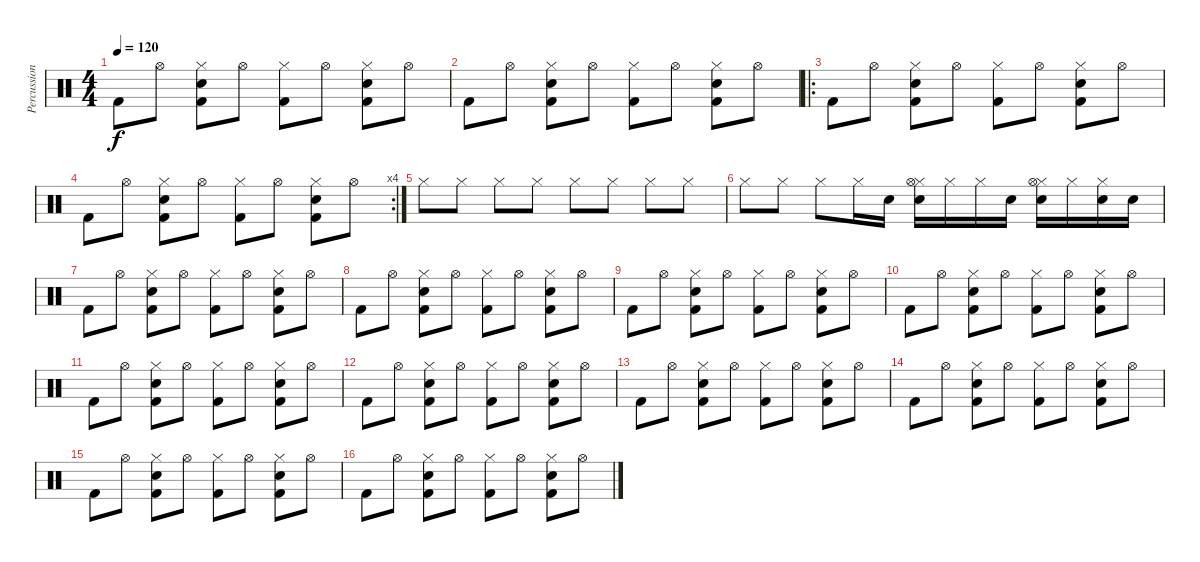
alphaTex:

\track ("Percussions" "Percussion") {instrument percussion}
\staff {score}
\articulation defaults
\ts (4 4)
\tempo 120
\clef neutral
\ks c "Kick (hit) 2".8{dy f} "Hi-Hat (open)".8
("Kick (hit) 2" "Hi-Hat (closed)" "Electric Snare (hit)").8 "Hi-Hat (open)".8 ("Kick (hit) 2" "Hi-Hat (closed)").8 "Hi-Hat (open)".8 ("Kick (hit) 2" "Hi-Hat (closed)" "Electric Snare (hit)").8 "Hi-Hat (open)".8 |
"Kick (hit) 2".8 "Hi-Hat (open)".8 ("Kick (hit) 2" "Hi-Hat (closed)" "Electric Snare (hit)").8 "Hi-Hat (open)".8 ("Kick (hit) 2" "Hi-Hat (closed)").8 "Hi-Hat (open)".8 ("Kick (hit) 2" "Hi-Hat (closed)" "Electric Snare (hit)").8 "Hi-Hat (open)".8 |
\ro "Kick (hit) 2".8 "Hi-Hat (open)".8
("Kick (hit) 2" "Hi-Hat (closed)" "Electric Snare (hit)").8 "Hi-Hat (open)".8 ("Kick (hit) 2" "Hi-Hat (closed)").8 "Hi-Hat (open)".8 ("Kick (hit) 2" "Hi-Hat (closed)" "Electric Snare (hit)").8 "Hi-Hat (open)".8 |
\rc 4 "Kick (hit) 2".8 "Hi-Hat (open)".8
("Kick (hit) 2" "Hi-Hat (closed)" "Electric Snare (hit)").8 "Hi-Hat (open)".8 ("Kick (hit) 2" "Hi-Hat (closed)").8 "Hi-Hat (open)".8 ("Kick (hit) 2" "Hi-Hat (closed)" "Electric Snare (hit)").8 "Hi-Hat (open)".8 |
"Hi-Hat (closed)".8 "Hi-Hat (closed)".8 "Hi-Hat (closed)".8 "Hi-Hat (closed)".8 "Hi-Hat (closed)".8 "Hi-Hat (closed)".8 "Hi-Hat (closed)".8 "Hi-Hat (closed)".8 |
"Hi-Hat (closed)".8 "Hi-Hat (closed)".8 "Hi-Hat (closed)".8 "Hi-Hat (closed)".16 "Electric Snare (hit)".16 ("Hi-Hat (closed)" "Electric Snare (hit)" "Hi-Hat (open)").16 "Hi-Hat (closed)".16 "Hi-Hat (closed)".16 "Electric Snare (hit)".16 ("Hi-Hat (closed)" "Electric Snare (hit)" "Hi-Hat (open)").16 "Hi-Hat (closed)".16 ("Hi-Hat (closed)" "Electric Snare (hit)").16 "Electric Snare (hit)".16 |
"Kick (hit) 2".8 "Hi-Hat (open)".8 ("Kick (hit) 2" "Hi-Hat (closed)" "Electric Snare (hit)").8 "Hi-Hat (open)".8 ("Kick (hit) 2" "Hi-Hat (closed)").8 "Hi-Hat (open)".8 ("Kick (hit) 2" "Hi-Hat (closed)" "Electric Snare (hit)").8 "Hi-Hat (open)".8 |
"Kick (hit) 2".8 "Hi-Hat (open)".8 ("Kick (hit) 2" "Hi-Hat (closed)" "Electric Snare (hit)").8 "Hi-Hat (open)".8 ("Kick (hit) 2" "Hi-Hat (closed)").8 "Hi-Hat (open)".8 ("Kick (hit) 2" "Hi-Hat (closed)" "Electric Snare (hit)").8 "Hi-Hat (open)".8 |
"Kick (hit) 2".8 "Hi-Hat (open)".8 ("Kick (hit) 2" "Hi-Hat (closed)" "Electric Snare (hit)").8 "Hi-Hat (open)".8 ("Kick (hit) 2" "Hi-Hat (closed)").8 "Hi-Hat (open)".8 ("Kick (hit) 2" "Hi-Hat (closed)" "Electric Snare (hit)").8 "Hi-Hat (open)".8 |
"Kick (hit) 2".8 "Hi-Hat (open)".8 ("Kick (hit) 2" "Hi-Hat (closed)" "Electric Snare (hit)").8 "Hi-Hat (open)".8 ("Kick (hit) 2" "Hi-Hat (closed)").8 "Hi-Hat (open)".8 ("Kick (hit) 2" "Hi-Hat (closed)" "Electric Snare (hit)").8 "Hi-Hat (open)".8 |
"Kick (hit) 2".8 "Hi-Hat (open)".8 ("Kick (hit) 2" "Hi-Hat (closed)" "Electric Snare (hit)").8 "Hi-Hat (open)".8 ("Kick (hit) 2" "Hi-Hat (closed)").8 "Hi-Hat (open)".8 ("Kick (hit) 2" "Hi-Hat (closed)" "Electric Snare (hit)").8 "Hi-Hat (open)".8 |
"Kick (hit) 2".8 "Hi-Hat (open)".8 ("Kick (hit) 2" "Hi-Hat (closed)" "Electric Snare (hit)").8 "Hi-Hat (open)".8 ("Kick (hit) 2" "Hi-Hat (closed)").8 "Hi-Hat (open)".8 ("Kick (hit) 2" "Hi-Hat (closed)" "Electric Snare (hit)").8 "Hi-Hat (open)".8 |
"Kick (hit) 2".8 "Hi-Hat (open)".8 ("Kick (hit) 2" "Hi-Hat (closed)" "Electric Snare (hit)").8 "Hi-Hat (open)".8 ("Kick (hit) 2" "Hi-Hat (closed)").8 "Hi-Hat (open)".8 ("Kick (hit) 2" "Hi-Hat (closed)" "Electric Snare (hit)").8 "Hi-Hat (open)".8 |
"Kick (hit) 2".8 "Hi-Hat (open)".8 ("Kick (hit) 2" "Hi-Hat (closed)" "Electric Snare (hit)").8 "Hi-Hat (open)".8 ("Kick (hit) 2" "Hi-Hat (closed)").8 "Hi-Hat (open)".8 ("Kick (hit) 2" "Hi-Hat (closed)" "Electric Snare (hit)").8 "Hi-Hat (open)".8 |
"Kick (hit) 2".8 "Hi-Hat (open)".8 ("Kick (hit) 2" "Hi-Hat (closed)" "Electric Snare (hit)").8 "Hi-Hat (open)".8 ("Kick (hit) 2" "Hi-Hat (closed)").8 "Hi-Hat (open)".8 ("Kick (hit) 2" "Hi-Hat (closed)" "Electric Snare (hit)").8 "Hi-Hat (open)".8 |
"Kick (hit) 2".8 "Hi-Hat (open)".8 ("Kick (hit) 2" "Hi-Hat (closed)" "Electric Snare (hit)").8 "Hi-Hat (open)".8 ("Kick (hit) 2" "Hi-Hat (closed)").8 "Hi-Hat (open)".8 ("Kick (hit) 2" "Hi-Hat (closed)" "Electric Snare (hit)").8 "Hi-Hat (open)".8
